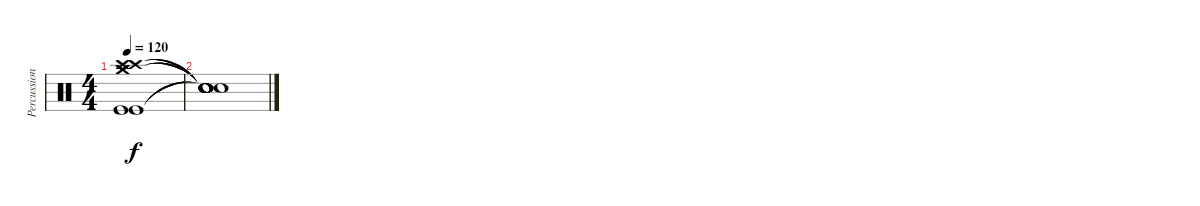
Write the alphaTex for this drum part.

\track ("Percussion" "Percussion") {instrument percussion}
\staff {score}
\articulation defaults
\ts (4 4)
\tempo 120
\clef neutral
\ks c
("Crash high (hit)" "Crash high (hit)" "Crash medium (hit)" "Crash medium (hit)" "Kick (hit)" "Kick (hit)").1{dy f} |
("Snare (hit)"{t} "Snare (hit)"{t} "Snare (hit)"{t} "Snare (hit)"{t} "Snare (hit)"{t} "Snare (hit)"{t}).1
